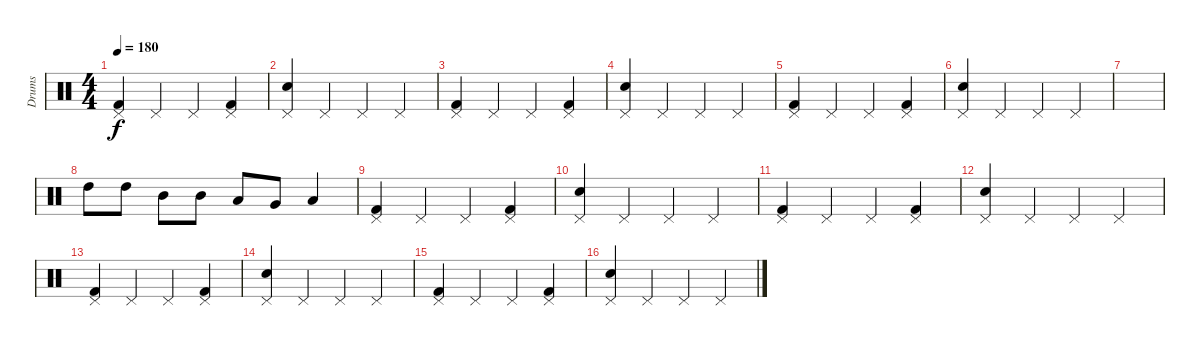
\track ("Drums" "Drums") {instrument percussion}
\staff {score}
\articulation defaults
\ts (4 4)
\tempo 180
\clef neutral
\ks c
("Kick (hit) 2" "Pedal Hi-Hat (hit)").4{dy f} "Pedal Hi-Hat (hit)".4 "Pedal Hi-Hat (hit)".4 ("Kick (hit) 2" "Pedal Hi-Hat (hit)").4 |
("Electric Snare (hit)" "Pedal Hi-Hat (hit)").4 "Pedal Hi-Hat (hit)".4 "Pedal Hi-Hat (hit)".4 "Pedal Hi-Hat (hit)".4 |
("Kick (hit) 2" "Pedal Hi-Hat (hit)").4 "Pedal Hi-Hat (hit)".4 "Pedal Hi-Hat (hit)".4 ("Kick (hit) 2" "Pedal Hi-Hat (hit)").4 |
("Electric Snare (hit)" "Pedal Hi-Hat (hit)").4 "Pedal Hi-Hat (hit)".4 "Pedal Hi-Hat (hit)".4 "Pedal Hi-Hat (hit)".4 |
("Kick (hit) 2" "Pedal Hi-Hat (hit)").4 "Pedal Hi-Hat (hit)".4 "Pedal Hi-Hat (hit)".4 ("Kick (hit) 2" "Pedal Hi-Hat (hit)").4 |
("Electric Snare (hit)" "Pedal Hi-Hat (hit)").4 "Pedal Hi-Hat (hit)".4 "Pedal Hi-Hat (hit)".4 "Pedal Hi-Hat (hit)".4 |
|
"High Tom (hit)".8 "High Tom (hit)".8 "Mid Tom (hit)".8 "Mid Tom (hit)".8 "Low Tom (hit)".8 "Very Low Tom (hit)".8 "Low Floor Tom (hit)".4 |
("Kick (hit) 2" "Pedal Hi-Hat (hit)").4 "Pedal Hi-Hat (hit)".4 "Pedal Hi-Hat (hit)".4 ("Kick (hit) 2" "Pedal Hi-Hat (hit)").4 |
("Electric Snare (hit)" "Pedal Hi-Hat (hit)").4 "Pedal Hi-Hat (hit)".4 "Pedal Hi-Hat (hit)".4 "Pedal Hi-Hat (hit)".4 |
("Kick (hit) 2" "Pedal Hi-Hat (hit)").4 "Pedal Hi-Hat (hit)".4 "Pedal Hi-Hat (hit)".4 ("Kick (hit) 2" "Pedal Hi-Hat (hit)").4 |
("Electric Snare (hit)" "Pedal Hi-Hat (hit)").4 "Pedal Hi-Hat (hit)".4 "Pedal Hi-Hat (hit)".4 "Pedal Hi-Hat (hit)".4 |
("Kick (hit) 2" "Pedal Hi-Hat (hit)").4 "Pedal Hi-Hat (hit)".4 "Pedal Hi-Hat (hit)".4 ("Kick (hit) 2" "Pedal Hi-Hat (hit)").4 |
("Electric Snare (hit)" "Pedal Hi-Hat (hit)").4 "Pedal Hi-Hat (hit)".4 "Pedal Hi-Hat (hit)".4 "Pedal Hi-Hat (hit)".4 |
("Kick (hit) 2" "Pedal Hi-Hat (hit)").4 "Pedal Hi-Hat (hit)".4 "Pedal Hi-Hat (hit)".4 ("Kick (hit) 2" "Pedal Hi-Hat (hit)").4 |
("Electric Snare (hit)" "Pedal Hi-Hat (hit)").4 "Pedal Hi-Hat (hit)".4 "Pedal Hi-Hat (hit)".4 "Pedal Hi-Hat (hit)".4
